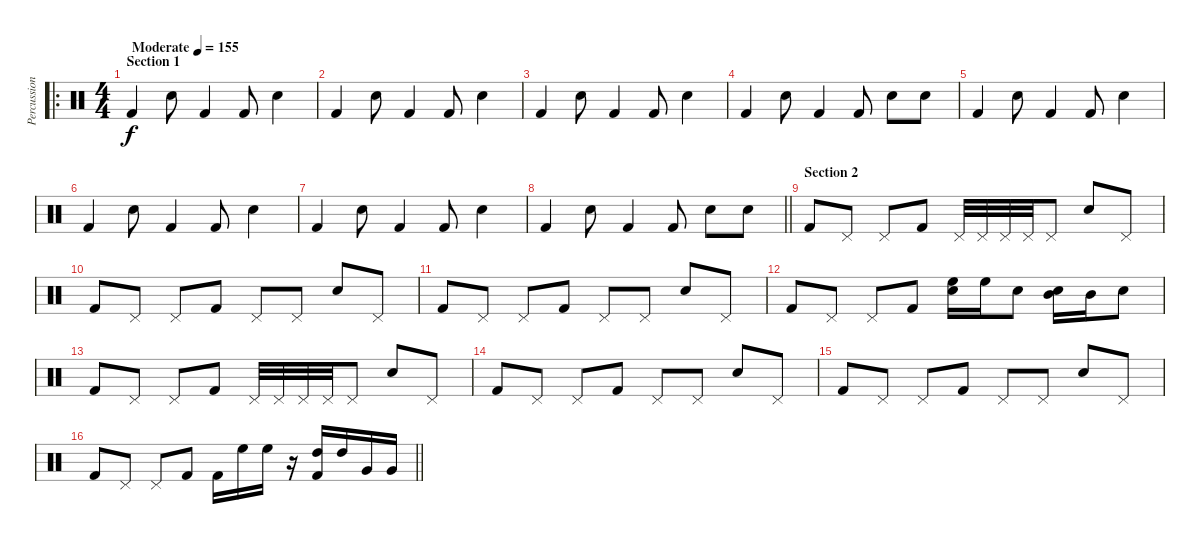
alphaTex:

\track ("Percussion" "Percussion") {instrument percussion}
\staff {score}
\articulation defaults
\ro
\ts (4 4)
\section ("" "Section 1")
\tempo (155 "Moderate")
\clef neutral
\ks c "Kick (hit) 2".4{dy f} "Snare (hit) 2".8 "Kick (hit) 2".4 "Kick (hit) 2".8 "Snare (hit) 2".4
|
"Kick (hit) 2".4 "Snare (hit) 2".8 "Kick (hit) 2".4 "Kick (hit) 2".8 "Snare (hit) 2".4 |
"Kick (hit) 2".4 "Snare (hit) 2".8 "Kick (hit) 2".4 "Kick (hit) 2".8 "Snare (hit) 2".4 |
"Kick (hit) 2".4 "Snare (hit) 2".8 "Kick (hit) 2".4 "Kick (hit) 2".8 "Snare (hit) 2".8 "Snare (hit) 2".8 |
"Kick (hit) 2".4 "Snare (hit) 2".8 "Kick (hit) 2".4 "Kick (hit) 2".8 "Snare (hit) 2".4 |
"Kick (hit) 2".4 "Snare (hit) 2".8 "Kick (hit) 2".4 "Kick (hit) 2".8 "Snare (hit) 2".4 |
"Kick (hit) 2".4 "Snare (hit) 2".8 "Kick (hit) 2".4 "Kick (hit) 2".8 "Snare (hit) 2".4 |
\barLineRight lightlight "Kick (hit) 2".4 "Snare (hit) 2".8 "Kick (hit) 2".4 "Kick (hit) 2".8 "Snare (hit) 2".8 "Snare (hit) 2".8
|
\section ("" "Section 2")
"Kick (hit) 2".8 "Pedal Hi-Hat (hit)".8 "Pedal Hi-Hat (hit)".8 "Kick (hit) 2".8 "Pedal Hi-Hat (hit)".32 "Pedal Hi-Hat (hit)".32 "Pedal Hi-Hat (hit)".32 "Pedal Hi-Hat (hit)".32 "Pedal Hi-Hat (hit)".8 "Snare (hit) 2".8 "Pedal Hi-Hat (hit)".8 |
"Kick (hit) 2".8 "Pedal Hi-Hat (hit)".8 "Pedal Hi-Hat (hit)".8 "Kick (hit) 2".8 "Pedal Hi-Hat (hit)".8 "Pedal Hi-Hat (hit)".8 "Snare (hit) 2".8 "Pedal Hi-Hat (hit)".8 |
"Kick (hit) 2".8 "Pedal Hi-Hat (hit)".8 "Pedal Hi-Hat (hit)".8 "Kick (hit) 2".8 "Pedal Hi-Hat (hit)".8 "Pedal Hi-Hat (hit)".8 "Snare (hit) 2".8 "Pedal Hi-Hat (hit)".8 |
"Kick (hit) 2".8 "Pedal Hi-Hat (hit)".8 "Pedal Hi-Hat (hit)".8 "Kick (hit) 2".8 ("High Floor Tom (hit)" "Snare (hit) 2").16 "High Floor Tom (hit)".16 "Snare (hit) 2".8 ("Mid Tom (hit)" "Snare (hit) 2").16 "Mid Tom (hit)".16 "Snare (hit) 2".8 |
"Kick (hit) 2".8 "Pedal Hi-Hat (hit)".8 "Pedal Hi-Hat (hit)".8 "Kick (hit) 2".8 "Pedal Hi-Hat (hit)".32 "Pedal Hi-Hat (hit)".32 "Pedal Hi-Hat (hit)".32 "Pedal Hi-Hat (hit)".32 "Pedal Hi-Hat (hit)".8 "Snare (hit) 2".8 "Pedal Hi-Hat (hit)".8 |
"Kick (hit) 2".8 "Pedal Hi-Hat (hit)".8 "Pedal Hi-Hat (hit)".8 "Kick (hit) 2".8 "Pedal Hi-Hat (hit)".8 "Pedal Hi-Hat (hit)".8 "Snare (hit) 2".8 "Pedal Hi-Hat (hit)".8 |
"Kick (hit) 2".8 "Pedal Hi-Hat (hit)".8 "Pedal Hi-Hat (hit)".8 "Kick (hit) 2".8 "Pedal Hi-Hat (hit)".8 "Pedal Hi-Hat (hit)".8 "Snare (hit) 2".8 "Pedal Hi-Hat (hit)".8 |
\barLineRight lightlight "Kick (hit) 2".8 "Pedal Hi-Hat (hit)".8 "Pedal Hi-Hat (hit)".8 "Kick (hit) 2".8 "Kick (hit) 2".16 "High Floor Tom (hit)".16 "High Floor Tom (hit)".16
r.16 ("High Tom (hit)" "Kick (hit) 2").16 "High Tom (hit)".16 "Very Low Tom (hit)".16 "Very Low Tom (hit)".16
